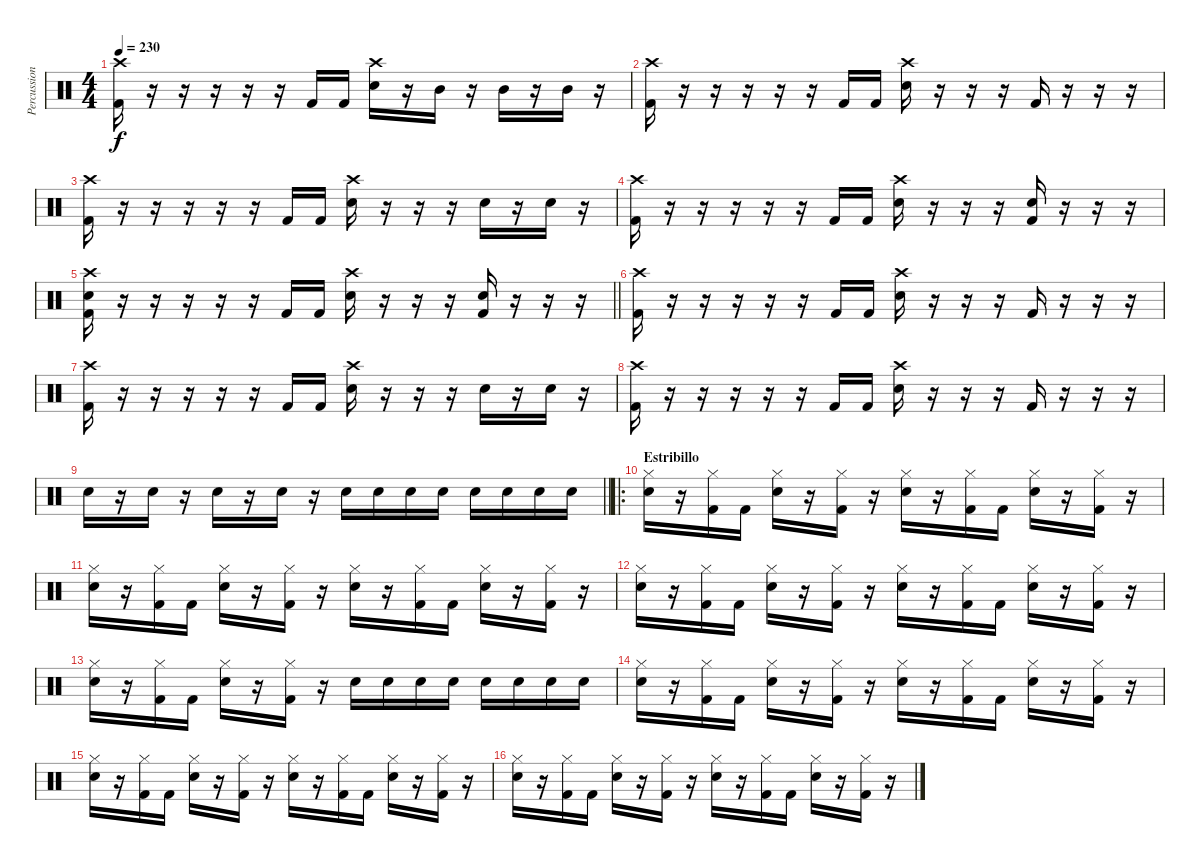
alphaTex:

\track ("Percussion" "Percussion") {instrument percussion}
\staff {score}
\articulation defaults
\ts (4 4)
\tempo 230
\clef neutral
\ks c
("Crash high (hit)" "Kick (hit) 2").16{dy f} r.16 r.16 r.16 r.16 r.16 "Kick (hit) 2".16 "Kick (hit) 2".16 ("Crash high (hit)" "Electric Snare (hit)").16 r.16 "Mid Tom (hit)".16 r.16 "Mid Tom (hit)".16 r.16 "Mid Tom (hit)".16 r.16 |
("Crash high (hit)" "Kick (hit) 2").16 r.16 r.16 r.16 r.16 r.16 "Kick (hit) 2".16 "Kick (hit) 2".16 ("Crash high (hit)" "Electric Snare (hit)").16 r.16 r.16 r.16 "Kick (hit) 2".16 r.16 r.16 r.16 |
("Crash high (hit)" "Kick (hit) 2").16 r.16 r.16 r.16 r.16 r.16 "Kick (hit) 2".16 "Kick (hit) 2".16 ("Crash high (hit)" "Electric Snare (hit)").16 r.16 r.16 r.16 "Electric Snare (hit)".16 r.16 "Electric Snare (hit)".16 r.16 |
("Crash high (hit)" "Kick (hit) 2").16 r.16 r.16 r.16 r.16 r.16 "Kick (hit) 2".16 "Kick (hit) 2".16 ("Crash high (hit)" "Electric Snare (hit)").16 r.16 r.16 r.16 ("Electric Snare (hit)" "Kick (hit) 2").16 r.16 r.16 r.16 |
\barLineRight lightlight
("Crash high (hit)" "Electric Snare (hit)" "Kick (hit) 2").16 r.16 r.16 r.16 r.16 r.16 "Kick (hit) 2".16 "Kick (hit) 2".16 ("Crash high (hit)" "Electric Snare (hit)").16 r.16 r.16 r.16 ("Electric Snare (hit)" "Kick (hit) 2").16 r.16 r.16 r.16 |
("Crash high (hit)" "Kick (hit) 2").16 r.16 r.16 r.16 r.16 r.16 "Kick (hit) 2".16 "Kick (hit) 2".16 ("Crash high (hit)" "Electric Snare (hit)").16 r.16 r.16 r.16 "Kick (hit) 2".16 r.16 r.16 r.16 |
("Crash high (hit)" "Kick (hit) 2").16 r.16 r.16 r.16 r.16 r.16 "Kick (hit) 2".16 "Kick (hit) 2".16 ("Crash high (hit)" "Electric Snare (hit)").16 r.16 r.16 r.16 "Electric Snare (hit)".16 r.16 "Electric Snare (hit)".16 r.16 |
("Crash high (hit)" "Kick (hit) 2").16 r.16 r.16 r.16 r.16 r.16 "Kick (hit) 2".16 "Kick (hit) 2".16 ("Crash high (hit)" "Electric Snare (hit)").16 r.16 r.16 r.16 "Kick (hit) 2".16 r.16 r.16 r.16 |
\barLineRight lightlight "Electric Snare (hit)".16
r.16 "Electric Snare (hit)".16 r.16 "Electric Snare (hit)".16 r.16 "Electric Snare (hit)".16 r.16 "Electric Snare (hit)".16 "Electric Snare (hit)".16 "Electric Snare (hit)".16 "Electric Snare (hit)".16 "Electric Snare (hit)".16 "Electric Snare (hit)".16 "Electric Snare (hit)".16 "Electric Snare (hit)".16 |
\ro
\section ("" "Estribillo")
("Hi-Hat (closed)" "Electric Snare (hit)").16 r.16 ("Hi-Hat (closed)" "Kick (hit) 2").16 "Kick (hit) 2".16 ("Hi-Hat (closed)" "Electric Snare (hit)").16 r.16 ("Hi-Hat (closed)" "Kick (hit) 2").16 r.16 ("Hi-Hat (closed)" "Electric Snare (hit)").16 r.16 ("Hi-Hat (closed)" "Kick (hit) 2").16 "Kick (hit) 2".16 ("Hi-Hat (closed)" "Electric Snare (hit)").16 r.16 ("Hi-Hat (closed)" "Kick (hit) 2").16 r.16 |
("Hi-Hat (closed)" "Electric Snare (hit)").16 r.16 ("Hi-Hat (closed)" "Kick (hit) 2").16 "Kick (hit) 2".16 ("Hi-Hat (closed)" "Electric Snare (hit)").16 r.16 ("Hi-Hat (closed)" "Kick (hit) 2").16 r.16 ("Hi-Hat (closed)" "Electric Snare (hit)").16 r.16 ("Hi-Hat (closed)" "Kick (hit) 2").16 "Kick (hit) 2".16 ("Hi-Hat (closed)" "Electric Snare (hit)").16 r.16 ("Hi-Hat (closed)" "Kick (hit) 2").16 r.16 |
("Hi-Hat (closed)" "Electric Snare (hit)").16 r.16 ("Hi-Hat (closed)" "Kick (hit) 2").16 "Kick (hit) 2".16 ("Hi-Hat (closed)" "Electric Snare (hit)").16 r.16 ("Hi-Hat (closed)" "Kick (hit) 2").16 r.16 ("Hi-Hat (closed)" "Electric Snare (hit)").16 r.16 ("Hi-Hat (closed)" "Kick (hit) 2").16 "Kick (hit) 2".16 ("Hi-Hat (closed)" "Electric Snare (hit)").16 r.16 ("Hi-Hat (closed)" "Kick (hit) 2").16 r.16 |
("Hi-Hat (closed)" "Electric Snare (hit)").16 r.16 ("Hi-Hat (closed)" "Kick (hit) 2").16 "Kick (hit) 2".16 ("Hi-Hat (closed)" "Electric Snare (hit)").16 r.16 ("Hi-Hat (closed)" "Kick (hit) 2").16 r.16 "Electric Snare (hit)".16 "Electric Snare (hit)".16 "Electric Snare (hit)".16 "Electric Snare (hit)".16 "Electric Snare (hit)".16 "Electric Snare (hit)".16 "Electric Snare (hit)".16 "Electric Snare (hit)".16 |
("Hi-Hat (closed)" "Electric Snare (hit)").16 r.16 ("Hi-Hat (closed)" "Kick (hit) 2").16 "Kick (hit) 2".16 ("Hi-Hat (closed)" "Electric Snare (hit)").16 r.16 ("Hi-Hat (closed)" "Kick (hit) 2").16 r.16 ("Hi-Hat (closed)" "Electric Snare (hit)").16 r.16 ("Hi-Hat (closed)" "Kick (hit) 2").16 "Kick (hit) 2".16 ("Hi-Hat (closed)" "Electric Snare (hit)").16 r.16 ("Hi-Hat (closed)" "Kick (hit) 2").16 r.16 |
("Hi-Hat (closed)" "Electric Snare (hit)").16 r.16 ("Hi-Hat (closed)" "Kick (hit) 2").16 "Kick (hit) 2".16 ("Hi-Hat (closed)" "Electric Snare (hit)").16 r.16 ("Hi-Hat (closed)" "Kick (hit) 2").16 r.16 ("Hi-Hat (closed)" "Electric Snare (hit)").16 r.16 ("Hi-Hat (closed)" "Kick (hit) 2").16 "Kick (hit) 2".16 ("Hi-Hat (closed)" "Electric Snare (hit)").16 r.16 ("Hi-Hat (closed)" "Kick (hit) 2").16 r.16 |
("Hi-Hat (closed)" "Electric Snare (hit)").16 r.16 ("Hi-Hat (closed)" "Kick (hit) 2").16 "Kick (hit) 2".16 ("Hi-Hat (closed)" "Electric Snare (hit)").16 r.16 ("Hi-Hat (closed)" "Kick (hit) 2").16 r.16 ("Hi-Hat (closed)" "Electric Snare (hit)").16 r.16 ("Hi-Hat (closed)" "Kick (hit) 2").16 "Kick (hit) 2".16 ("Hi-Hat (closed)" "Electric Snare (hit)").16 r.16 ("Hi-Hat (closed)" "Kick (hit) 2").16 r.16
